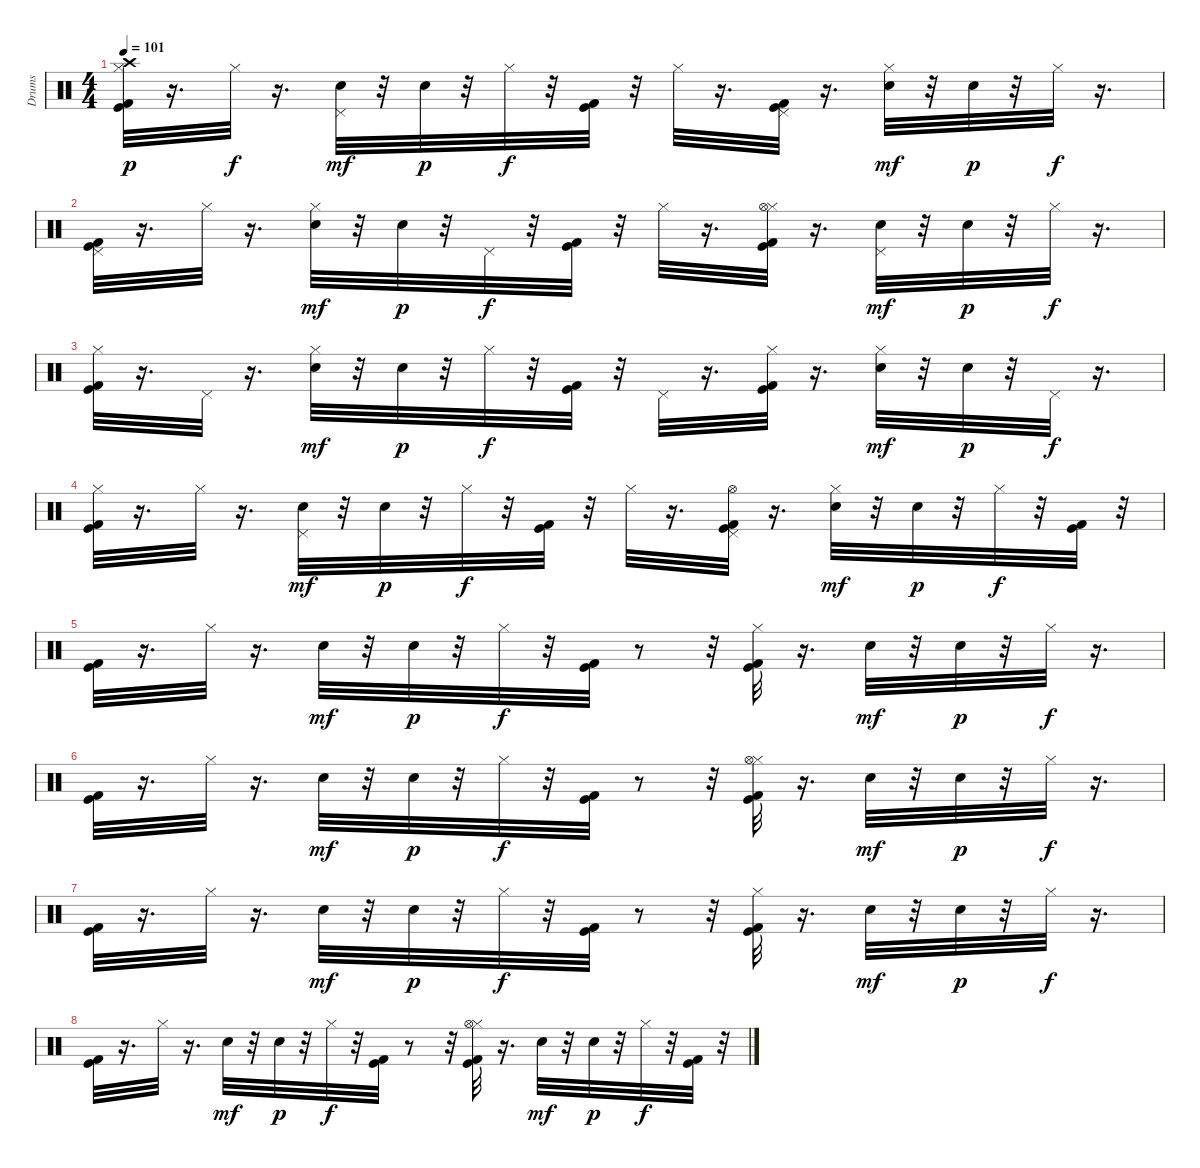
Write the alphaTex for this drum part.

\track ("Drums" "Drums") {instrument percussion}
\staff {score}
\articulation defaults
\ts (4 4)
\tempo 101
\clef neutral
\ks c
("Kick (hit)" "Kick (hit) 2" "Hi-Hat (closed)" "Crash high (hit)").32{dy p} r.16{d} "Hi-Hat (closed)".32{dy f} r.16{d} ("Hand Clap (hit)" "Pedal Hi-Hat (hit)").32{dy mf} r.32 "Hand Clap (hit)".32{dy p} r.32 "Hi-Hat (closed)".32{dy f} r.32 ("Kick (hit)" "Kick (hit) 2").32 r.32 "Hi-Hat (closed)".32 r.16{d} ("Kick (hit)" "Kick (hit) 2" "Pedal Hi-Hat (hit)").32 r.16{d} ("Hand Clap (hit)" "Hi-Hat (closed)").32{dy mf} r.32 "Hand Clap (hit)".32{dy p} r.32 "Hi-Hat (closed)".32{dy f} r.16{d} |
("Kick (hit)" "Kick (hit) 2" "Pedal Hi-Hat (hit)").32 r.16{d} "Hi-Hat (closed)".32 r.16{d} ("Hand Clap (hit)" "Hi-Hat (closed)").32{dy mf} r.32 "Hand Clap (hit)".32{dy p} r.32 "Pedal Hi-Hat (hit)".32{dy f} r.32 ("Kick (hit)" "Kick (hit) 2").32 r.32 "Hi-Hat (closed)".32 r.16{d} ("Kick (hit)" "Kick (hit) 2" "Hi-Hat (closed)" "Hi-Hat (open)").32 r.16{d} ("Hand Clap (hit)" "Pedal Hi-Hat (hit)").32{dy mf} r.32 "Hand Clap (hit)".32{dy p} r.32 "Hi-Hat (closed)".32{dy f} r.16{d} |
("Kick (hit)" "Kick (hit) 2" "Hi-Hat (closed)").32 r.16{d} "Pedal Hi-Hat (hit)".32 r.16{d} ("Hand Clap (hit)" "Hi-Hat (closed)").32{dy mf} r.32 "Hand Clap (hit)".32{dy p} r.32 "Hi-Hat (closed)".32{dy f} r.32 ("Kick (hit)" "Kick (hit) 2").32 r.32 "Pedal Hi-Hat (hit)".32 r.16{d} ("Kick (hit)" "Kick (hit) 2" "Hi-Hat (closed)").32 r.16{d} ("Hand Clap (hit)" "Hi-Hat (closed)").32{dy mf} r.32 "Hand Clap (hit)".32{dy p} r.32 "Pedal Hi-Hat (hit)".32{dy f} r.16{d} |
("Kick (hit)" "Kick (hit) 2" "Hi-Hat (closed)").32 r.16{d} "Hi-Hat (closed)".32 r.16{d} ("Hand Clap (hit)" "Pedal Hi-Hat (hit)").32{dy mf} r.32 "Hand Clap (hit)".32{dy p} r.32 "Hi-Hat (closed)".32{dy f} r.32 ("Kick (hit)" "Kick (hit) 2").32 r.32 "Hi-Hat (closed)".32 r.16{d} ("Kick (hit)" "Kick (hit) 2" "Pedal Hi-Hat (hit)" "Hi-Hat (open)").32 r.16{d} ("Hand Clap (hit)" "Hi-Hat (closed)").32{dy mf} r.32 "Hand Clap (hit)".32{dy p} r.32 "Hi-Hat (closed)".32{dy f} r.32 ("Kick (hit)" "Kick (hit) 2").32 r.32 |
("Kick (hit)" "Kick (hit) 2").32 r.16{d} "Hi-Hat (closed)".32 r.16{d} "Hand Clap (hit)".32{dy mf} r.32 "Hand Clap (hit)".32{dy p} r.32 "Hi-Hat (closed)".32{dy f} r.32 ("Kick (hit)" "Kick (hit) 2").32 r.8 r.32 ("Kick (hit)" "Kick (hit) 2" "Hi-Hat (closed)").32 r.16{d} "Hand Clap (hit)".32{dy mf} r.32 "Hand Clap (hit)".32{dy p} r.32 "Hi-Hat (closed)".32{dy f} r.16{d} |
("Kick (hit)" "Kick (hit) 2").32 r.16{d} "Hi-Hat (closed)".32 r.16{d} "Hand Clap (hit)".32{dy mf} r.32 "Hand Clap (hit)".32{dy p} r.32 "Hi-Hat (closed)".32{dy f} r.32 ("Kick (hit)" "Kick (hit) 2").32 r.8 r.32 ("Kick (hit)" "Kick (hit) 2" "Hi-Hat (closed)" "Hi-Hat (open)").32 r.16{d} "Hand Clap (hit)".32{dy mf} r.32 "Hand Clap (hit)".32{dy p} r.32 "Hi-Hat (closed)".32{dy f} r.16{d} |
("Kick (hit)" "Kick (hit) 2").32 r.16{d} "Hi-Hat (closed)".32 r.16{d} "Hand Clap (hit)".32{dy mf} r.32 "Hand Clap (hit)".32{dy p} r.32 "Hi-Hat (closed)".32{dy f} r.32 ("Kick (hit)" "Kick (hit) 2").32 r.8 r.32 ("Kick (hit)" "Kick (hit) 2" "Hi-Hat (closed)").32 r.16{d} "Hand Clap (hit)".32{dy mf} r.32 "Hand Clap (hit)".32{dy p} r.32 "Hi-Hat (closed)".32{dy f} r.16{d} |
("Kick (hit)" "Kick (hit) 2").32 r.16{d} "Hi-Hat (closed)".32 r.16{d} "Hand Clap (hit)".32{dy mf} r.32 "Hand Clap (hit)".32{dy p} r.32 "Hi-Hat (closed)".32{dy f} r.32 ("Kick (hit)" "Kick (hit) 2").32 r.8 r.32 ("Kick (hit)" "Kick (hit) 2" "Hi-Hat (closed)" "Hi-Hat (open)").32 r.16{d} "Hand Clap (hit)".32{dy mf} r.32 "Hand Clap (hit)".32{dy p} r.32 "Hi-Hat (closed)".32{dy f} r.32 ("Kick (hit)" "Kick (hit) 2").32 r.32
